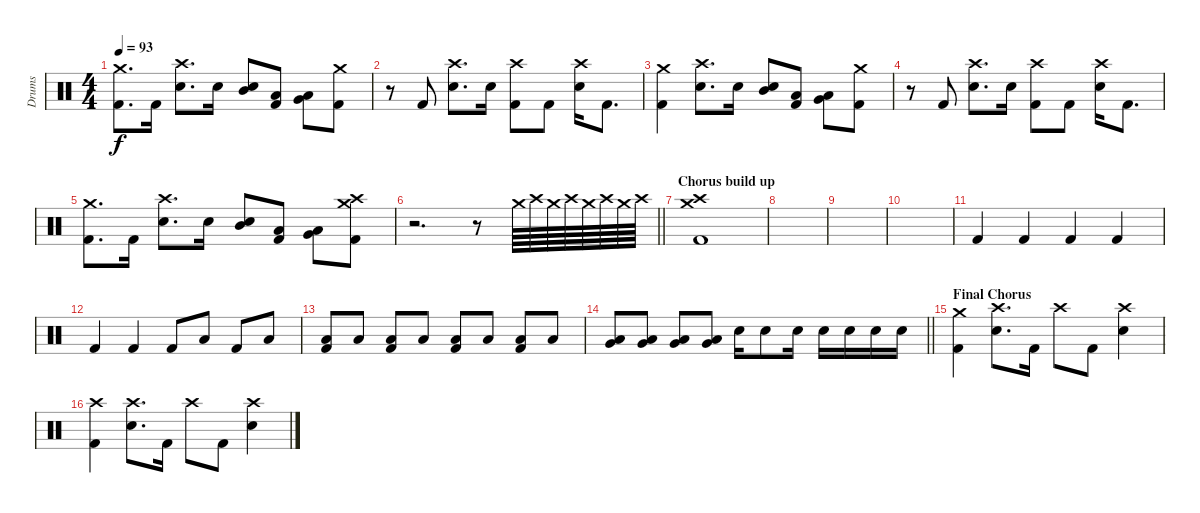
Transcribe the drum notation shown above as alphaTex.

\track ("Drums" "Drums") {instrument percussion}
\staff {score}
\articulation defaults
\ts (4 4)
\tempo 93
\clef neutral
\ks c
("Crash medium (hit)" "Kick (hit) 2").8{d dy f} "Kick (hit) 2".16 ("Crash high (hit)" "Electric Snare (hit)").8{d} "Electric Snare (hit)".16 ("Mid Tom (hit)" "Electric Snare (hit)").8 ("Low Tom (hit)" "Kick (hit) 2").8 ("Very Low Tom (hit)" "Low Floor Tom (hit)").8 ("Crash medium (hit)" "Kick (hit) 2").8 |
r.8 "Kick (hit) 2".8 ("Crash high (hit)" "Electric Snare (hit)").8{d} "Electric Snare (hit)".16 ("Crash high (hit)" "Kick (hit) 2").8 "Kick (hit) 2".8 ("Crash high (hit)" "Electric Snare (hit)").16 "Kick (hit) 2".8{d} |
("Crash medium (hit)" "Kick (hit) 2").4 ("Crash high (hit)" "Electric Snare (hit)").8{d} "Electric Snare (hit)".16 ("Mid Tom (hit)" "Electric Snare (hit)").8 ("Low Tom (hit)" "Kick (hit) 2").8 ("Very Low Tom (hit)" "Low Floor Tom (hit)").8 ("Crash medium (hit)" "Kick (hit) 2").8 |
r.8 "Kick (hit) 2".8 ("Crash high (hit)" "Electric Snare (hit)").8{d} "Electric Snare (hit)".16 ("Crash high (hit)" "Kick (hit) 2").8 "Kick (hit) 2".8 ("Crash high (hit)" "Electric Snare (hit)").16 "Kick (hit) 2".8{d} |
("Crash medium (hit)" "Kick (hit) 2").8{d} "Kick (hit) 2".16 ("Crash high (hit)" "Electric Snare (hit)").8{d} "Electric Snare (hit)".16 ("Mid Tom (hit)" "Electric Snare (hit)").8 ("Low Tom (hit)" "Kick (hit) 2").8 ("Very Low Tom (hit)" "Low Floor Tom (hit)").8 ("Crash medium (hit)" "Crash high (hit)" "Kick (hit) 2").8 |
\barLineRight lightlight
r.2{d} r.8{volume 1} "Crash medium (hit)".64{volume 14} "Crash high (hit)".64 "Crash medium (hit)".64 "Crash high (hit)".64 "Crash medium (hit)".64 "Crash high (hit)".64 "Crash medium (hit)".64 "Crash high (hit)".64 |
\section ("" "Chorus build up")
("Crash medium (hit)" "Crash high (hit)" "Kick (hit) 2").1 |
|
|
|
"Kick (hit) 2".4{volume 7} "Kick (hit) 2".4 "Kick (hit) 2".4 "Kick (hit) 2".4 |
"Kick (hit) 2".4 "Kick (hit) 2".4 "Kick (hit) 2".8 "Low Floor Tom (hit)".8 "Kick (hit) 2".8 "Low Floor Tom (hit)".8 |
("Low Floor Tom (hit)" "Kick (hit) 2").8 "Low Floor Tom (hit)".8 ("Low Floor Tom (hit)" "Kick (hit) 2").8 "Low Floor Tom (hit)".8 ("Low Floor Tom (hit)" "Kick (hit) 2").8 "Low Floor Tom (hit)".8 ("Low Floor Tom (hit)" "Kick (hit) 2").8 "Low Floor Tom (hit)".8 |
\barLineRight lightlight
("Very Low Tom (hit)" "Low Floor Tom (hit)").8{volume 14} ("Very Low Tom (hit)" "Low Floor Tom (hit)").8 ("Very Low Tom (hit)" "Low Floor Tom (hit)").8 ("Very Low Tom (hit)" "Low Floor Tom (hit)").8 "Electric Snare (hit)".16{volume 16} "Electric Snare (hit)".8 "Electric Snare (hit)".16 "Electric Snare (hit)".16 "Electric Snare (hit)".16 "Electric Snare (hit)".16 "Electric Snare (hit)".16 |
\section ("" "Final Chorus")
("Crash medium (hit)" "Kick (hit) 2").4{volume 14} ("Crash high (hit)" "Electric Snare (hit)").8{d} "Kick (hit) 2".16 "Crash high (hit)".8 "Kick (hit) 2".8 ("Crash high (hit)" "Electric Snare (hit)").4 |
("Crash high (hit)" "Kick (hit) 2").4 ("Crash high (hit)" "Electric Snare (hit)").8{d} "Kick (hit) 2".16 "Crash high (hit)".8 "Kick (hit) 2".8 ("Crash high (hit)" "Electric Snare (hit)").4
